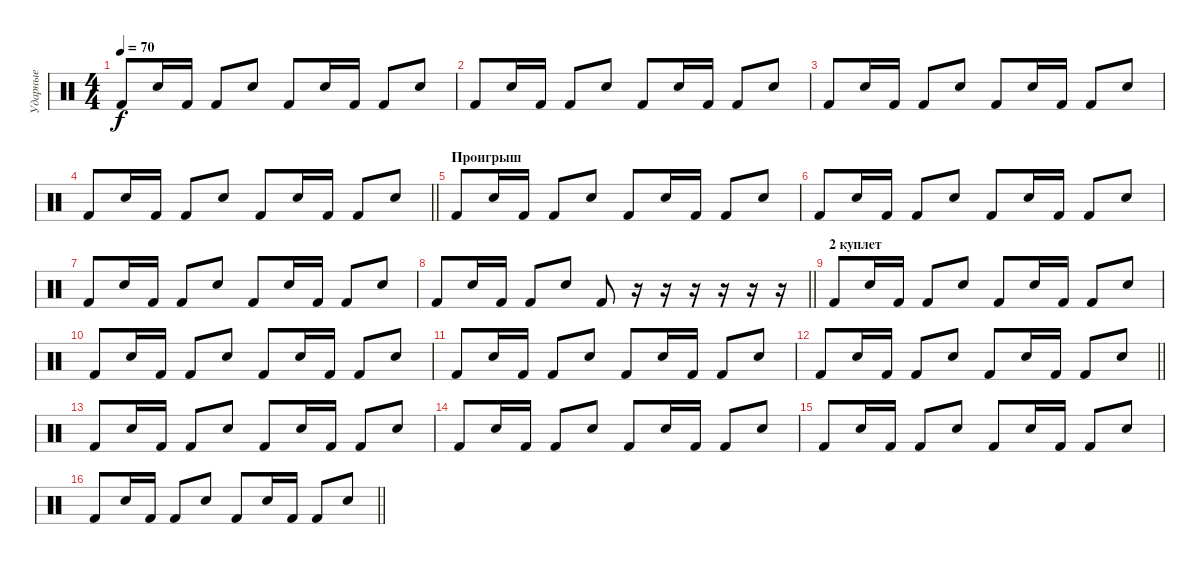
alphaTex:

\track ("Ударные" "Ударные") {instrument percussion}
\staff {score}
\articulation defaults
\ts (4 4)
\tempo 70
\clef neutral
\ks c "Kick (hit) 2".8{dy f} "Electric Snare (hit)".16 "Kick (hit) 2".16 "Kick (hit) 2".8 "Electric Snare (hit)".8 "Kick (hit) 2".8 "Electric Snare (hit)".16 "Kick (hit) 2".16 "Kick (hit) 2".8 "Electric Snare (hit)".8
|
"Kick (hit) 2".8 "Electric Snare (hit)".16 "Kick (hit) 2".16 "Kick (hit) 2".8 "Electric Snare (hit)".8 "Kick (hit) 2".8 "Electric Snare (hit)".16 "Kick (hit) 2".16 "Kick (hit) 2".8 "Electric Snare (hit)".8 |
"Kick (hit) 2".8 "Electric Snare (hit)".16 "Kick (hit) 2".16 "Kick (hit) 2".8 "Electric Snare (hit)".8 "Kick (hit) 2".8 "Electric Snare (hit)".16 "Kick (hit) 2".16 "Kick (hit) 2".8 "Electric Snare (hit)".8 |
\barLineRight lightlight "Kick (hit) 2".8 "Electric Snare (hit)".16 "Kick (hit) 2".16 "Kick (hit) 2".8 "Electric Snare (hit)".8 "Kick (hit) 2".8 "Electric Snare (hit)".16 "Kick (hit) 2".16 "Kick (hit) 2".8 "Electric Snare (hit)".8
|
\section ("" "Проигрыш")
"Kick (hit) 2".8 "Electric Snare (hit)".16 "Kick (hit) 2".16 "Kick (hit) 2".8 "Electric Snare (hit)".8 "Kick (hit) 2".8 "Electric Snare (hit)".16 "Kick (hit) 2".16 "Kick (hit) 2".8 "Electric Snare (hit)".8 |
"Kick (hit) 2".8 "Electric Snare (hit)".16 "Kick (hit) 2".16 "Kick (hit) 2".8 "Electric Snare (hit)".8 "Kick (hit) 2".8 "Electric Snare (hit)".16 "Kick (hit) 2".16 "Kick (hit) 2".8 "Electric Snare (hit)".8 |
"Kick (hit) 2".8 "Electric Snare (hit)".16 "Kick (hit) 2".16 "Kick (hit) 2".8 "Electric Snare (hit)".8 "Kick (hit) 2".8 "Electric Snare (hit)".16 "Kick (hit) 2".16 "Kick (hit) 2".8 "Electric Snare (hit)".8 |
\barLineRight lightlight "Kick (hit) 2".8 "Electric Snare (hit)".16 "Kick (hit) 2".16 "Kick (hit) 2".8 "Electric Snare (hit)".8 "Kick (hit) 2".8
r.16 r.16 r.16 r.16 r.16 r.16 |
\section ("" "2 куплет")
"Kick (hit) 2".8 "Electric Snare (hit)".16 "Kick (hit) 2".16 "Kick (hit) 2".8 "Electric Snare (hit)".8 "Kick (hit) 2".8 "Electric Snare (hit)".16 "Kick (hit) 2".16 "Kick (hit) 2".8 "Electric Snare (hit)".8 |
"Kick (hit) 2".8 "Electric Snare (hit)".16 "Kick (hit) 2".16 "Kick (hit) 2".8 "Electric Snare (hit)".8 "Kick (hit) 2".8 "Electric Snare (hit)".16 "Kick (hit) 2".16 "Kick (hit) 2".8 "Electric Snare (hit)".8 |
"Kick (hit) 2".8 "Electric Snare (hit)".16 "Kick (hit) 2".16 "Kick (hit) 2".8 "Electric Snare (hit)".8 "Kick (hit) 2".8 "Electric Snare (hit)".16 "Kick (hit) 2".16 "Kick (hit) 2".8 "Electric Snare (hit)".8 |
\barLineRight lightlight "Kick (hit) 2".8 "Electric Snare (hit)".16 "Kick (hit) 2".16 "Kick (hit) 2".8 "Electric Snare (hit)".8 "Kick (hit) 2".8 "Electric Snare (hit)".16 "Kick (hit) 2".16 "Kick (hit) 2".8 "Electric Snare (hit)".8
|
"Kick (hit) 2".8 "Electric Snare (hit)".16 "Kick (hit) 2".16 "Kick (hit) 2".8 "Electric Snare (hit)".8 "Kick (hit) 2".8 "Electric Snare (hit)".16 "Kick (hit) 2".16 "Kick (hit) 2".8 "Electric Snare (hit)".8 |
"Kick (hit) 2".8 "Electric Snare (hit)".16 "Kick (hit) 2".16 "Kick (hit) 2".8 "Electric Snare (hit)".8 "Kick (hit) 2".8 "Electric Snare (hit)".16 "Kick (hit) 2".16 "Kick (hit) 2".8 "Electric Snare (hit)".8 |
"Kick (hit) 2".8 "Electric Snare (hit)".16 "Kick (hit) 2".16 "Kick (hit) 2".8 "Electric Snare (hit)".8 "Kick (hit) 2".8 "Electric Snare (hit)".16 "Kick (hit) 2".16 "Kick (hit) 2".8 "Electric Snare (hit)".8 |
\barLineRight lightlight "Kick (hit) 2".8 "Electric Snare (hit)".16 "Kick (hit) 2".16 "Kick (hit) 2".8 "Electric Snare (hit)".8 "Kick (hit) 2".8 "Electric Snare (hit)".16 "Kick (hit) 2".16 "Kick (hit) 2".8 "Electric Snare (hit)".8
